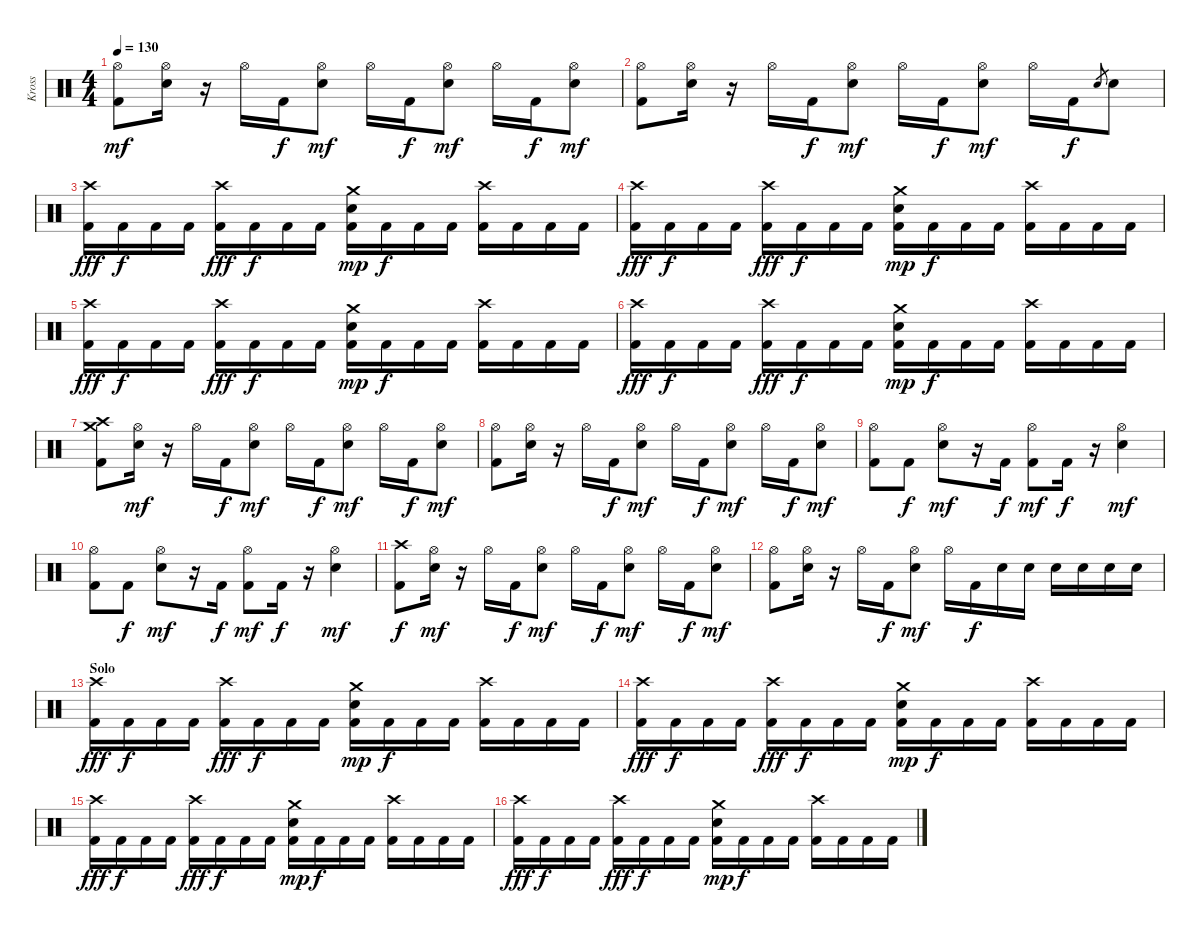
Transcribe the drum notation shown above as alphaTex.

\track ("Kross" "Kross") {instrument percussion}
\staff {score}
\articulation defaults
\ts (4 4)
\tempo 130
\clef neutral
\ks c
("Hi-Hat (open)" "Kick (hit) 2").8{dy mf} ("Hi-Hat (open)" "Snare (hit) 2").16 r.16 "Hi-Hat (open)".16 "Kick (hit) 2".16{dy f} ("Hi-Hat (open)" "Snare (hit) 2").8{dy mf} "Hi-Hat (open)".16 "Kick (hit) 2".16{dy f} ("Hi-Hat (open)" "Snare (hit) 2").8{dy mf} "Hi-Hat (open)".16 "Kick (hit) 2".16{dy f} ("Hi-Hat (open)" "Snare (hit) 2").8{dy mf} |
("Hi-Hat (open)" "Kick (hit) 2").8 ("Hi-Hat (open)" "Snare (hit) 2").16 r.16 "Hi-Hat (open)".16 "Kick (hit) 2".16{dy f} ("Hi-Hat (open)" "Snare (hit) 2").8{dy mf} "Hi-Hat (open)".16 "Kick (hit) 2".16{dy f} ("Hi-Hat (open)" "Snare (hit) 2").8{dy mf} "Hi-Hat (open)".16 "Kick (hit) 2".16{dy f} "Snare (hit) 2".8{gr} "Snare (hit) 2".8 |
("Crash high (hit)" "Kick (hit) 2").16{dy fff} "Kick (hit) 2".16{dy f} "Kick (hit) 2".16 "Kick (hit) 2".16 ("Crash high (hit)" "Kick (hit) 2").16{dy fff} "Kick (hit) 2".16{dy f} "Kick (hit) 2".16 "Kick (hit) 2".16 ("Crash medium (hit)" "Snare (hit) 2" "Kick (hit) 2").16{dy mp} "Kick (hit) 2".16{dy f} "Kick (hit) 2".16 "Kick (hit) 2".16 ("Crash high (hit)" "Kick (hit) 2").16 "Kick (hit) 2".16 "Kick (hit) 2".16 "Kick (hit) 2".16 |
("Crash high (hit)" "Kick (hit) 2").16{dy fff} "Kick (hit) 2".16{dy f} "Kick (hit) 2".16 "Kick (hit) 2".16 ("Crash high (hit)" "Kick (hit) 2").16{dy fff} "Kick (hit) 2".16{dy f} "Kick (hit) 2".16 "Kick (hit) 2".16 ("Crash medium (hit)" "Snare (hit) 2" "Kick (hit) 2").16{dy mp} "Kick (hit) 2".16{dy f} "Kick (hit) 2".16 "Kick (hit) 2".16 ("Crash high (hit)" "Kick (hit) 2").16 "Kick (hit) 2".16 "Kick (hit) 2".16 "Kick (hit) 2".16 |
("Crash high (hit)" "Kick (hit) 2").16{dy fff} "Kick (hit) 2".16{dy f} "Kick (hit) 2".16 "Kick (hit) 2".16 ("Crash high (hit)" "Kick (hit) 2").16{dy fff} "Kick (hit) 2".16{dy f} "Kick (hit) 2".16 "Kick (hit) 2".16 ("Crash medium (hit)" "Snare (hit) 2" "Kick (hit) 2").16{dy mp} "Kick (hit) 2".16{dy f} "Kick (hit) 2".16 "Kick (hit) 2".16 ("Crash high (hit)" "Kick (hit) 2").16 "Kick (hit) 2".16 "Kick (hit) 2".16 "Kick (hit) 2".16 |
("Crash high (hit)" "Kick (hit) 2").16{dy fff} "Kick (hit) 2".16{dy f} "Kick (hit) 2".16 "Kick (hit) 2".16 ("Crash high (hit)" "Kick (hit) 2").16{dy fff} "Kick (hit) 2".16{dy f} "Kick (hit) 2".16 "Kick (hit) 2".16 ("Crash medium (hit)" "Snare (hit) 2" "Kick (hit) 2").16{dy mp} "Kick (hit) 2".16{dy f} "Kick (hit) 2".16 "Kick (hit) 2".16 ("Crash high (hit)" "Kick (hit) 2").16 "Kick (hit) 2".16 "Kick (hit) 2".16 "Kick (hit) 2".16 |
("Crash high (hit)" "Crash medium (hit)" "Kick (hit) 2").8 ("Hi-Hat (open)" "Snare (hit) 2").16{dy mf} r.16 "Hi-Hat (open)".16 "Kick (hit) 2".16{dy f} ("Hi-Hat (open)" "Snare (hit) 2").8{dy mf} "Hi-Hat (open)".16 "Kick (hit) 2".16{dy f} ("Hi-Hat (open)" "Snare (hit) 2").8{dy mf} "Hi-Hat (open)".16 "Kick (hit) 2".16{dy f} ("Hi-Hat (open)" "Snare (hit) 2").8{dy mf} |
("Hi-Hat (open)" "Kick (hit) 2").8 ("Hi-Hat (open)" "Snare (hit) 2").16 r.16 "Hi-Hat (open)".16 "Kick (hit) 2".16{dy f} ("Hi-Hat (open)" "Snare (hit) 2").8{dy mf} "Hi-Hat (open)".16 "Kick (hit) 2".16{dy f} ("Hi-Hat (open)" "Snare (hit) 2").8{dy mf} "Hi-Hat (open)".16 "Kick (hit) 2".16{dy f} ("Hi-Hat (open)" "Snare (hit) 2").8{dy mf} |
("Hi-Hat (open)" "Kick (hit) 2").8 "Kick (hit) 2".8{dy f} ("Hi-Hat (open)" "Snare (hit) 2").8{dy mf} r.16 "Kick (hit) 2".16{dy f} ("Hi-Hat (open)" "Kick (hit) 2").8{dy mf} "Kick (hit) 2".16{dy f} r.16 ("Hi-Hat (open)" "Snare (hit) 2").4{dy mf} |
("Hi-Hat (open)" "Kick (hit) 2").8 "Kick (hit) 2".8{dy f} ("Hi-Hat (open)" "Snare (hit) 2").8{dy mf} r.16 "Kick (hit) 2".16{dy f} ("Hi-Hat (open)" "Kick (hit) 2").8{dy mf} "Kick (hit) 2".16{dy f} r.16 ("Hi-Hat (open)" "Snare (hit) 2").4{dy mf} |
("Crash high (hit)" "Kick (hit) 2").8{dy f} ("Hi-Hat (open)" "Snare (hit) 2").16{dy mf} r.16 "Hi-Hat (open)".16 "Kick (hit) 2".16{dy f} ("Hi-Hat (open)" "Snare (hit) 2").8{dy mf} "Hi-Hat (open)".16 "Kick (hit) 2".16{dy f} ("Hi-Hat (open)" "Snare (hit) 2").8{dy mf} "Hi-Hat (open)".16 "Kick (hit) 2".16{dy f} ("Hi-Hat (open)" "Snare (hit) 2").8{dy mf} |
("Hi-Hat (open)" "Kick (hit) 2").8 ("Hi-Hat (open)" "Snare (hit) 2").16 r.16 "Hi-Hat (open)".16 "Kick (hit) 2".16{dy f} ("Hi-Hat (open)" "Snare (hit) 2").8{dy mf} "Hi-Hat (open)".16 "Kick (hit) 2".16{dy f} "Snare (hit) 2".16 "Snare (hit) 2".16 "Snare (hit) 2".16 "Snare (hit) 2".16 "Snare (hit) 2".16 "Snare (hit) 2".16 |
\section ("" "Solo")
("Crash high (hit)" "Kick (hit) 2").16{dy fff} "Kick (hit) 2".16{dy f} "Kick (hit) 2".16 "Kick (hit) 2".16 ("Crash high (hit)" "Kick (hit) 2").16{dy fff} "Kick (hit) 2".16{dy f} "Kick (hit) 2".16 "Kick (hit) 2".16 ("Crash medium (hit)" "Snare (hit) 2" "Kick (hit) 2").16{dy mp} "Kick (hit) 2".16{dy f} "Kick (hit) 2".16 "Kick (hit) 2".16 ("Crash high (hit)" "Kick (hit) 2").16 "Kick (hit) 2".16 "Kick (hit) 2".16 "Kick (hit) 2".16 |
("Crash high (hit)" "Kick (hit) 2").16{dy fff} "Kick (hit) 2".16{dy f} "Kick (hit) 2".16 "Kick (hit) 2".16 ("Crash high (hit)" "Kick (hit) 2").16{dy fff} "Kick (hit) 2".16{dy f} "Kick (hit) 2".16 "Kick (hit) 2".16 ("Crash medium (hit)" "Snare (hit) 2" "Kick (hit) 2").16{dy mp} "Kick (hit) 2".16{dy f} "Kick (hit) 2".16 "Kick (hit) 2".16 ("Crash high (hit)" "Kick (hit) 2").16 "Kick (hit) 2".16 "Kick (hit) 2".16 "Kick (hit) 2".16 |
("Crash high (hit)" "Kick (hit) 2").16{dy fff} "Kick (hit) 2".16{dy f} "Kick (hit) 2".16 "Kick (hit) 2".16 ("Crash high (hit)" "Kick (hit) 2").16{dy fff} "Kick (hit) 2".16{dy f} "Kick (hit) 2".16 "Kick (hit) 2".16 ("Crash medium (hit)" "Snare (hit) 2" "Kick (hit) 2").16{dy mp} "Kick (hit) 2".16{dy f} "Kick (hit) 2".16 "Kick (hit) 2".16 ("Crash high (hit)" "Kick (hit) 2").16 "Kick (hit) 2".16 "Kick (hit) 2".16 "Kick (hit) 2".16 |
("Crash high (hit)" "Kick (hit) 2").16{dy fff} "Kick (hit) 2".16{dy f} "Kick (hit) 2".16 "Kick (hit) 2".16 ("Crash high (hit)" "Kick (hit) 2").16{dy fff} "Kick (hit) 2".16{dy f} "Kick (hit) 2".16 "Kick (hit) 2".16 ("Crash medium (hit)" "Snare (hit) 2" "Kick (hit) 2").16{dy mp} "Kick (hit) 2".16{dy f} "Kick (hit) 2".16 "Kick (hit) 2".16 ("Crash high (hit)" "Kick (hit) 2").16 "Kick (hit) 2".16 "Kick (hit) 2".16 "Kick (hit) 2".16
